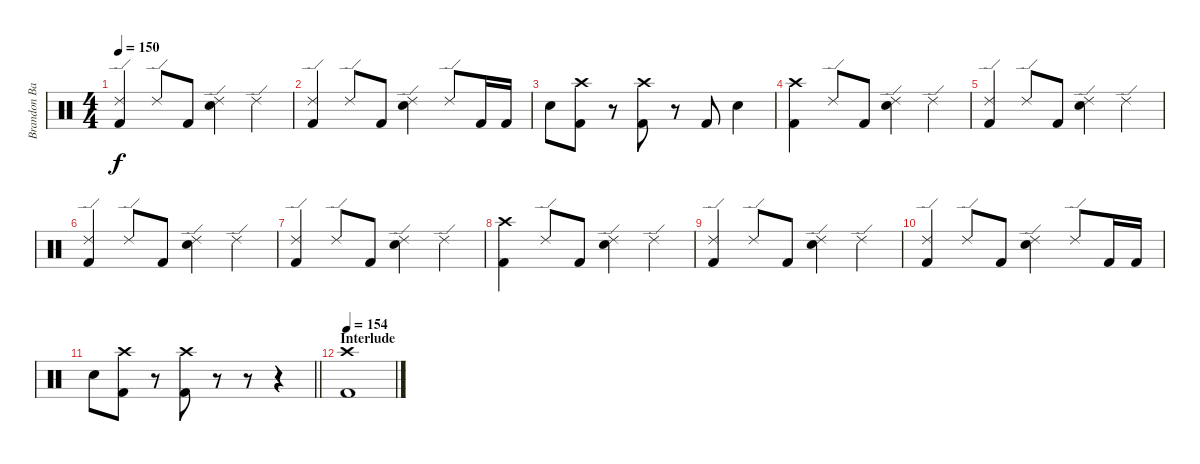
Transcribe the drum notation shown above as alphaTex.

\track ("Brandon Barnes - Drums" "Brandon Ba") {instrument percussion}
\staff {score}
\articulation defaults
\ts (4 4)
\tempo 150
\clef neutral
\ks c
("Kick (hit) 2" "Ride (edge) 2").4{dy f} "Ride (edge) 2".8 "Kick (hit) 2".8 ("Snare (hit) 2" "Ride (edge) 2").4 "Ride (edge) 2".4 |
("Kick (hit) 2" "Ride (edge) 2").4 "Ride (edge) 2".8 "Kick (hit) 2".8 ("Snare (hit) 2" "Ride (edge) 2").4 "Ride (edge) 2".8 "Kick (hit) 2".16 "Kick (hit) 2".16 |
"Snare (hit) 2".8 ("Crash high (hit)" "Kick (hit) 2").8 r.8 ("Kick (hit) 2" "Crash high (hit)").8 r.8 "Kick (hit) 2".8 "Snare (hit) 2".4 |
("Kick (hit) 2" "Crash high (hit)").4 "Ride (edge) 2".8 "Kick (hit) 2".8 ("Snare (hit) 2" "Ride (edge) 2").4 "Ride (edge) 2".4 |
("Kick (hit) 2" "Ride (edge) 2").4 "Ride (edge) 2".8 "Kick (hit) 2".8 ("Snare (hit) 2" "Ride (edge) 2").4 "Ride (edge) 2".4 |
("Kick (hit) 2" "Ride (edge) 2").4 "Ride (edge) 2".8 "Kick (hit) 2".8 ("Snare (hit) 2" "Ride (edge) 2").4 "Ride (edge) 2".4 |
("Kick (hit) 2" "Ride (edge) 2").4 "Ride (edge) 2".8 "Kick (hit) 2".8 ("Snare (hit) 2" "Ride (edge) 2").4 "Ride (edge) 2".4 |
("Kick (hit) 2" "Crash high (hit)").4 "Ride (edge) 2".8 "Kick (hit) 2".8 ("Snare (hit) 2" "Ride (edge) 2").4 "Ride (edge) 2".4 |
("Kick (hit) 2" "Ride (edge) 2").4 "Ride (edge) 2".8 "Kick (hit) 2".8 ("Snare (hit) 2" "Ride (edge) 2").4 "Ride (edge) 2".4 |
("Kick (hit) 2" "Ride (edge) 2").4 "Ride (edge) 2".8 "Kick (hit) 2".8 ("Snare (hit) 2" "Ride (edge) 2").4 "Ride (edge) 2".8 "Kick (hit) 2".16 "Kick (hit) 2".16 |
\barLineRight lightlight "Snare (hit) 2".8
("Crash high (hit)" "Kick (hit) 2").8 r.8 ("Kick (hit) 2" "Crash high (hit)").8 r.8 r.8{volume 0} r.4 |
\section ("" "Interlude")
\tempo 154
("Crash high (hit)" "Kick (hit) 2").1{volume 10}
